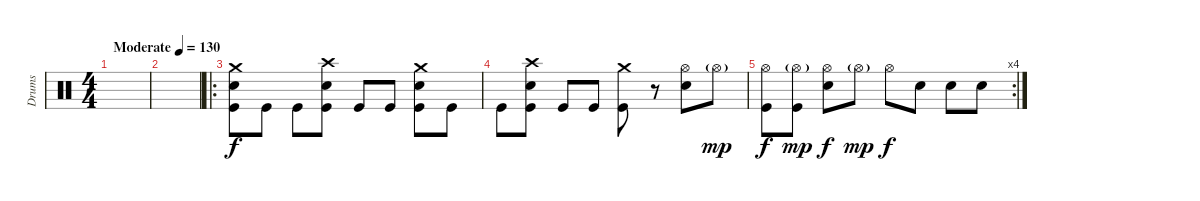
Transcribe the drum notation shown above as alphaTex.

\track ("Drums" "Drums") {instrument percussion}
\staff {score}
\articulation defaults
\ts (4 4)
\tempo (130 "Moderate")
\clef neutral
\ks c
|
|
\ro
("Crash medium (hit)" "Snare (hit) 2" "Kick (hit)").8 "Kick (hit)".8 "Kick (hit)".8 ("Crash high (hit)" "Snare (hit) 2" "Kick (hit)").8 "Kick (hit)".8 "Kick (hit)".8 ("Crash medium (hit)" "Snare (hit) 2" "Kick (hit)").8 "Kick (hit)".8 |
"Kick (hit)".8 ("Crash high (hit)" "Snare (hit) 2" "Kick (hit)").8 "Kick (hit)".8 "Kick (hit)".8 ("Crash medium (hit)" "Kick (hit)").8 r.8 ("Hi-Hat (open)" "Snare (hit) 2").8 "Hi-Hat (open)"{g}.8{dy mp} |
\rc 4
("Hi-Hat (open)" "Kick (hit)").8{dy f} ("Hi-Hat (open)"{g} "Kick (hit)").8{dy mp} ("Hi-Hat (open)" "Snare (hit) 2").8{dy f} "Hi-Hat (open)"{g}.8{dy mp} "Hi-Hat (open)".8{dy f} "Snare (hit) 2".8 "Snare (hit) 2".8 "Snare (hit) 2".8
